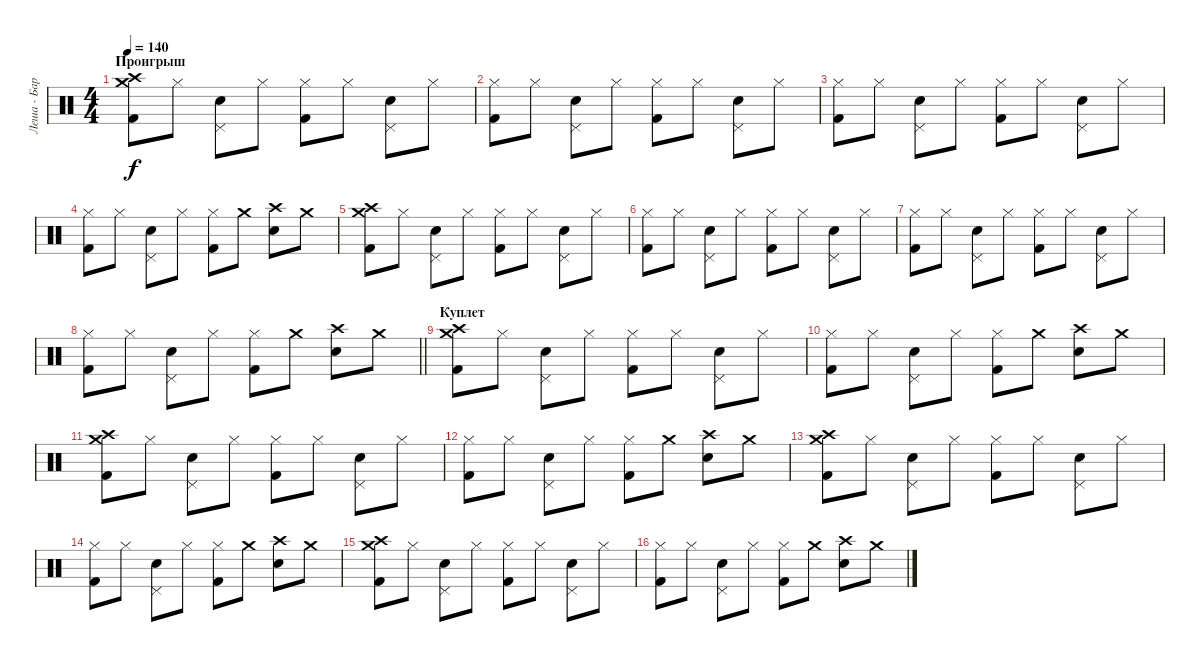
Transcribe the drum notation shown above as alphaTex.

\track ("Леша - Барабаны" "Леша - Бар") {instrument percussion}
\staff {score}
\articulation defaults
\ts (4 4)
\section ("" "Проигрыш")
\tempo 140
\clef neutral
\ks c
("Crash high (hit)" "Crash medium (hit)" "Kick (hit) 2").8{dy f} "Hi-Hat (closed)".8 ("Pedal Hi-Hat (hit)" "Snare (hit) 2").8 "Hi-Hat (closed)".8 ("Hi-Hat (closed)" "Kick (hit) 2").8 "Hi-Hat (closed)".8 ("Pedal Hi-Hat (hit)" "Snare (hit) 2").8 "Hi-Hat (closed)".8 |
("Hi-Hat (closed)" "Kick (hit) 2").8 "Hi-Hat (closed)".8 ("Pedal Hi-Hat (hit)" "Snare (hit) 2").8 "Hi-Hat (closed)".8 ("Hi-Hat (closed)" "Kick (hit) 2").8 "Hi-Hat (closed)".8 ("Pedal Hi-Hat (hit)" "Snare (hit) 2").8 "Hi-Hat (closed)".8 |
("Hi-Hat (closed)" "Kick (hit) 2").8 "Hi-Hat (closed)".8 ("Pedal Hi-Hat (hit)" "Snare (hit) 2").8 "Hi-Hat (closed)".8 ("Hi-Hat (closed)" "Kick (hit) 2").8 "Hi-Hat (closed)".8 ("Pedal Hi-Hat (hit)" "Snare (hit) 2").8 "Hi-Hat (closed)".8 |
("Hi-Hat (closed)" "Kick (hit) 2").8 "Hi-Hat (closed)".8 ("Pedal Hi-Hat (hit)" "Snare (hit) 2").8 "Hi-Hat (closed)".8 ("Hi-Hat (closed)" "Kick (hit) 2").8 "Crash medium (hit)".8 ("Crash high (hit)" "Snare (hit) 2").8 "Crash medium (hit)".8 |
("Crash high (hit)" "Crash medium (hit)" "Kick (hit) 2").8 "Hi-Hat (closed)".8 ("Pedal Hi-Hat (hit)" "Snare (hit) 2").8 "Hi-Hat (closed)".8 ("Hi-Hat (closed)" "Kick (hit) 2").8 "Hi-Hat (closed)".8 ("Pedal Hi-Hat (hit)" "Snare (hit) 2").8 "Hi-Hat (closed)".8 |
("Hi-Hat (closed)" "Kick (hit) 2").8 "Hi-Hat (closed)".8 ("Pedal Hi-Hat (hit)" "Snare (hit) 2").8 "Hi-Hat (closed)".8 ("Hi-Hat (closed)" "Kick (hit) 2").8 "Hi-Hat (closed)".8 ("Pedal Hi-Hat (hit)" "Snare (hit) 2").8 "Hi-Hat (closed)".8 |
("Hi-Hat (closed)" "Kick (hit) 2").8 "Hi-Hat (closed)".8 ("Pedal Hi-Hat (hit)" "Snare (hit) 2").8 "Hi-Hat (closed)".8 ("Hi-Hat (closed)" "Kick (hit) 2").8 "Hi-Hat (closed)".8 ("Pedal Hi-Hat (hit)" "Snare (hit) 2").8 "Hi-Hat (closed)".8 |
\barLineRight lightlight
("Hi-Hat (closed)" "Kick (hit) 2").8 "Hi-Hat (closed)".8 ("Pedal Hi-Hat (hit)" "Snare (hit) 2").8 "Hi-Hat (closed)".8 ("Hi-Hat (closed)" "Kick (hit) 2").8 "Crash medium (hit)".8 ("Crash high (hit)" "Snare (hit) 2").8 "Crash medium (hit)".8 |
\section ("" "Куплет")
("Crash high (hit)" "Crash medium (hit)" "Kick (hit) 2").8 "Hi-Hat (closed)".8 ("Pedal Hi-Hat (hit)" "Snare (hit) 2").8 "Hi-Hat (closed)".8 ("Hi-Hat (closed)" "Kick (hit) 2").8 "Hi-Hat (closed)".8 ("Pedal Hi-Hat (hit)" "Snare (hit) 2").8 "Hi-Hat (closed)".8 |
("Hi-Hat (closed)" "Kick (hit) 2").8 "Hi-Hat (closed)".8 ("Pedal Hi-Hat (hit)" "Snare (hit) 2").8 "Hi-Hat (closed)".8 ("Hi-Hat (closed)" "Kick (hit) 2").8 "Crash medium (hit)".8 ("Crash high (hit)" "Snare (hit) 2").8 "Crash medium (hit)".8 |
("Crash high (hit)" "Crash medium (hit)" "Kick (hit) 2").8 "Hi-Hat (closed)".8 ("Pedal Hi-Hat (hit)" "Snare (hit) 2").8 "Hi-Hat (closed)".8 ("Hi-Hat (closed)" "Kick (hit) 2").8 "Hi-Hat (closed)".8 ("Pedal Hi-Hat (hit)" "Snare (hit) 2").8 "Hi-Hat (closed)".8 |
("Hi-Hat (closed)" "Kick (hit) 2").8 "Hi-Hat (closed)".8 ("Pedal Hi-Hat (hit)" "Snare (hit) 2").8 "Hi-Hat (closed)".8 ("Hi-Hat (closed)" "Kick (hit) 2").8 "Crash medium (hit)".8 ("Crash high (hit)" "Snare (hit) 2").8 "Crash medium (hit)".8 |
("Crash high (hit)" "Crash medium (hit)" "Kick (hit) 2").8 "Hi-Hat (closed)".8 ("Pedal Hi-Hat (hit)" "Snare (hit) 2").8 "Hi-Hat (closed)".8 ("Hi-Hat (closed)" "Kick (hit) 2").8 "Hi-Hat (closed)".8 ("Pedal Hi-Hat (hit)" "Snare (hit) 2").8 "Hi-Hat (closed)".8 |
("Hi-Hat (closed)" "Kick (hit) 2").8 "Hi-Hat (closed)".8 ("Pedal Hi-Hat (hit)" "Snare (hit) 2").8 "Hi-Hat (closed)".8 ("Hi-Hat (closed)" "Kick (hit) 2").8 "Crash medium (hit)".8 ("Crash high (hit)" "Snare (hit) 2").8 "Crash medium (hit)".8 |
("Crash high (hit)" "Crash medium (hit)" "Kick (hit) 2").8 "Hi-Hat (closed)".8 ("Pedal Hi-Hat (hit)" "Snare (hit) 2").8 "Hi-Hat (closed)".8 ("Hi-Hat (closed)" "Kick (hit) 2").8 "Hi-Hat (closed)".8 ("Pedal Hi-Hat (hit)" "Snare (hit) 2").8 "Hi-Hat (closed)".8 |
("Hi-Hat (closed)" "Kick (hit) 2").8 "Hi-Hat (closed)".8 ("Pedal Hi-Hat (hit)" "Snare (hit) 2").8 "Hi-Hat (closed)".8 ("Hi-Hat (closed)" "Kick (hit) 2").8 "Crash medium (hit)".8 ("Crash high (hit)" "Snare (hit) 2").8 "Crash medium (hit)".8
